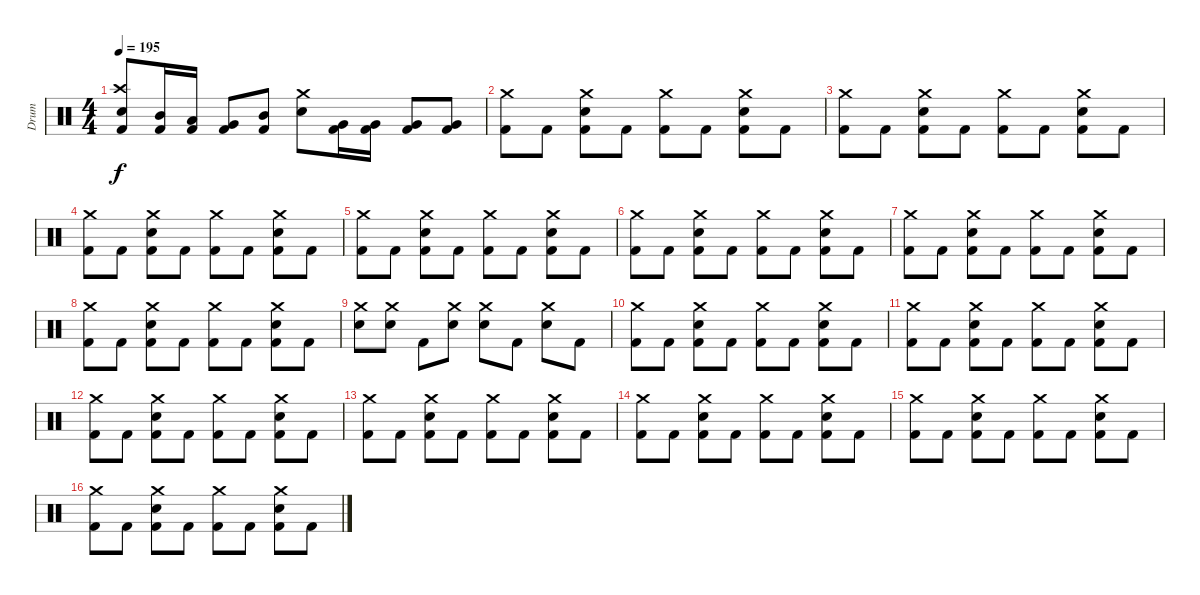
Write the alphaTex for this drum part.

\track ("Drum" "Drum") {instrument percussion}
\staff {score}
\articulation defaults
\ts (4 4)
\tempo 195
\clef neutral
\ks c
("Electric Snare (hit)" "Crash high (hit)" "Kick (hit) 2").8{dy f} ("Mid Tom (hit)" "Kick (hit) 2").16 ("Low Tom (hit)" "Kick (hit) 2").16 ("Very Low Tom (hit)" "Kick (hit) 2").8 ("Mid Tom (hit)" "Kick (hit) 2").8 ("Electric Snare (hit)" "Crash medium (hit)").8 ("Very Low Tom (hit)" "Kick (hit) 2").16 ("Very Low Tom (hit)" "Kick (hit) 2").16 ("Very Low Tom (hit)" "Kick (hit) 2").8 ("Very Low Tom (hit)" "Kick (hit) 2").8 |
("Crash medium (hit)" "Kick (hit) 2").8 "Kick (hit) 2".8 ("Crash medium (hit)" "Kick (hit) 2" "Electric Snare (hit)").8 "Kick (hit) 2".8 ("Crash medium (hit)" "Kick (hit) 2").8 "Kick (hit) 2".8 ("Crash medium (hit)" "Kick (hit) 2" "Electric Snare (hit)").8 "Kick (hit) 2".8 |
("Crash medium (hit)" "Kick (hit) 2").8 "Kick (hit) 2".8 ("Crash medium (hit)" "Kick (hit) 2" "Electric Snare (hit)").8 "Kick (hit) 2".8 ("Crash medium (hit)" "Kick (hit) 2").8 "Kick (hit) 2".8 ("Crash medium (hit)" "Kick (hit) 2" "Electric Snare (hit)").8 "Kick (hit) 2".8 |
("Crash medium (hit)" "Kick (hit) 2").8 "Kick (hit) 2".8 ("Crash medium (hit)" "Kick (hit) 2" "Electric Snare (hit)").8 "Kick (hit) 2".8 ("Crash medium (hit)" "Kick (hit) 2").8 "Kick (hit) 2".8 ("Crash medium (hit)" "Kick (hit) 2" "Electric Snare (hit)").8 "Kick (hit) 2".8 |
("Crash medium (hit)" "Kick (hit) 2").8 "Kick (hit) 2".8 ("Crash medium (hit)" "Kick (hit) 2" "Electric Snare (hit)").8 "Kick (hit) 2".8 ("Crash medium (hit)" "Kick (hit) 2").8 "Kick (hit) 2".8 ("Crash medium (hit)" "Kick (hit) 2" "Electric Snare (hit)").8 "Kick (hit) 2".8 |
("Crash medium (hit)" "Kick (hit) 2").8 "Kick (hit) 2".8 ("Crash medium (hit)" "Kick (hit) 2" "Electric Snare (hit)").8 "Kick (hit) 2".8 ("Crash medium (hit)" "Kick (hit) 2").8 "Kick (hit) 2".8 ("Crash medium (hit)" "Kick (hit) 2" "Electric Snare (hit)").8 "Kick (hit) 2".8 |
("Crash medium (hit)" "Kick (hit) 2").8 "Kick (hit) 2".8 ("Crash medium (hit)" "Kick (hit) 2" "Electric Snare (hit)").8 "Kick (hit) 2".8 ("Crash medium (hit)" "Kick (hit) 2").8 "Kick (hit) 2".8 ("Crash medium (hit)" "Kick (hit) 2" "Electric Snare (hit)").8 "Kick (hit) 2".8 |
("Crash medium (hit)" "Kick (hit) 2").8 "Kick (hit) 2".8 ("Crash medium (hit)" "Kick (hit) 2" "Electric Snare (hit)").8 "Kick (hit) 2".8 ("Crash medium (hit)" "Kick (hit) 2").8 "Kick (hit) 2".8 ("Crash medium (hit)" "Kick (hit) 2" "Electric Snare (hit)").8 "Kick (hit) 2".8 |
("Crash medium (hit)" "Electric Snare (hit)").8 ("Crash medium (hit)" "Electric Snare (hit)").8 "Kick (hit) 2".8 ("Crash medium (hit)" "Electric Snare (hit)").8 ("Crash medium (hit)" "Electric Snare (hit)").8 "Kick (hit) 2".8 ("Crash medium (hit)" "Electric Snare (hit)").8 "Kick (hit) 2".8 |
("Crash medium (hit)" "Kick (hit) 2").8 "Kick (hit) 2".8 ("Crash medium (hit)" "Kick (hit) 2" "Electric Snare (hit)").8 "Kick (hit) 2".8 ("Crash medium (hit)" "Kick (hit) 2").8 "Kick (hit) 2".8 ("Crash medium (hit)" "Kick (hit) 2" "Electric Snare (hit)").8 "Kick (hit) 2".8 |
("Crash medium (hit)" "Kick (hit) 2").8 "Kick (hit) 2".8 ("Crash medium (hit)" "Kick (hit) 2" "Electric Snare (hit)").8 "Kick (hit) 2".8 ("Crash medium (hit)" "Kick (hit) 2").8 "Kick (hit) 2".8 ("Crash medium (hit)" "Kick (hit) 2" "Electric Snare (hit)").8 "Kick (hit) 2".8 |
("Crash medium (hit)" "Kick (hit) 2").8 "Kick (hit) 2".8 ("Crash medium (hit)" "Kick (hit) 2" "Electric Snare (hit)").8 "Kick (hit) 2".8 ("Crash medium (hit)" "Kick (hit) 2").8 "Kick (hit) 2".8 ("Crash medium (hit)" "Kick (hit) 2" "Electric Snare (hit)").8 "Kick (hit) 2".8 |
("Crash medium (hit)" "Kick (hit) 2").8 "Kick (hit) 2".8 ("Crash medium (hit)" "Kick (hit) 2" "Electric Snare (hit)").8 "Kick (hit) 2".8 ("Crash medium (hit)" "Kick (hit) 2").8 "Kick (hit) 2".8 ("Crash medium (hit)" "Kick (hit) 2" "Electric Snare (hit)").8 "Kick (hit) 2".8 |
("Crash medium (hit)" "Kick (hit) 2").8 "Kick (hit) 2".8 ("Crash medium (hit)" "Kick (hit) 2" "Electric Snare (hit)").8 "Kick (hit) 2".8 ("Crash medium (hit)" "Kick (hit) 2").8 "Kick (hit) 2".8 ("Crash medium (hit)" "Kick (hit) 2" "Electric Snare (hit)").8 "Kick (hit) 2".8 |
("Crash medium (hit)" "Kick (hit) 2").8 "Kick (hit) 2".8 ("Crash medium (hit)" "Kick (hit) 2" "Electric Snare (hit)").8 "Kick (hit) 2".8 ("Crash medium (hit)" "Kick (hit) 2").8 "Kick (hit) 2".8 ("Crash medium (hit)" "Kick (hit) 2" "Electric Snare (hit)").8 "Kick (hit) 2".8 |
("Crash medium (hit)" "Kick (hit) 2").8 "Kick (hit) 2".8 ("Crash medium (hit)" "Kick (hit) 2" "Electric Snare (hit)").8 "Kick (hit) 2".8 ("Crash medium (hit)" "Kick (hit) 2").8 "Kick (hit) 2".8 ("Crash medium (hit)" "Kick (hit) 2" "Electric Snare (hit)").8 "Kick (hit) 2".8
